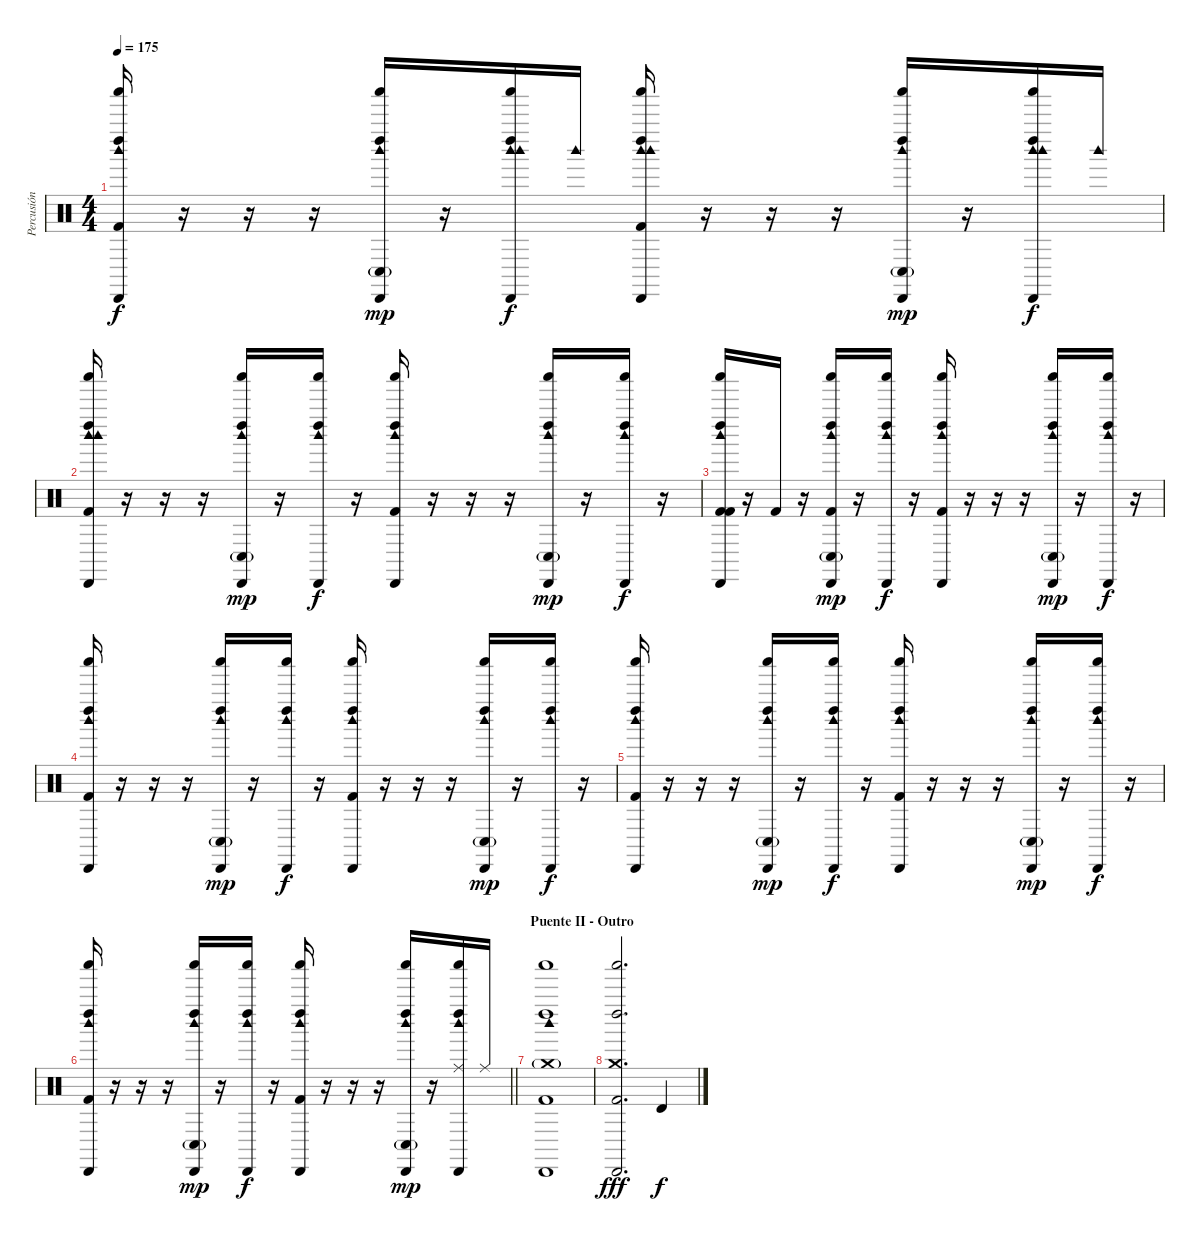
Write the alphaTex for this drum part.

\track ("Percusión" "Percusión") {instrument percussion}
\staff {score}
\articulation defaults
\ts (4 4)
\tempo 175
\clef neutral
\ks c
("Cabasa (hit)" "Shaker (hit)" "Kick (hit) 2" "Left Maraca (hit)" "Woodblock high (hit)").16{dy f} r.16 r.16 r.16 ("Cabasa (hit)" "Shaker (hit)" "Conga low (hit)"{g} "Left Maraca (hit)" "Woodblock high (hit)").16{dy mp} r.16 ("Woodblock high (hit)" "Cabasa (hit)" "Shaker (hit)" "Left Maraca (hit)" "Woodblock high (hit)").16{dy f} "Woodblock high (hit)".16 ("Woodblock high (hit)" "Cabasa (hit)" "Shaker (hit)" "Kick (hit) 2" "Left Maraca (hit)" "Woodblock high (hit)").16 r.16 r.16 r.16 ("Cabasa (hit)" "Shaker (hit)" "Conga low (hit)"{g} "Left Maraca (hit)" "Woodblock high (hit)").16{dy mp} r.16 ("Woodblock high (hit)" "Cabasa (hit)" "Shaker (hit)" "Left Maraca (hit)" "Woodblock high (hit)").16{dy f} "Woodblock high (hit)".16 |
("Woodblock high (hit)" "Cabasa (hit)" "Shaker (hit)" "Kick (hit) 2" "Left Maraca (hit)" "Woodblock high (hit)").16 r.16 r.16 r.16 ("Cabasa (hit)" "Shaker (hit)" "Conga low (hit)"{g} "Left Maraca (hit)" "Woodblock high (hit)").16{dy mp} r.16 ("Cabasa (hit)" "Shaker (hit)" "Left Maraca (hit)" "Woodblock high (hit)").16{dy f} r.16 ("Cabasa (hit)" "Shaker (hit)" "Kick (hit) 2" "Left Maraca (hit)" "Woodblock high (hit)").16 r.16 r.16 r.16 ("Cabasa (hit)" "Shaker (hit)" "Conga low (hit)"{g} "Left Maraca (hit)" "Woodblock high (hit)").16{dy mp} r.16 ("Cabasa (hit)" "Shaker (hit)" "Left Maraca (hit)" "Woodblock high (hit)").16{dy f} r.16 |
("Kick (hit) 2" "Cabasa (hit)" "Shaker (hit)" "Kick (hit) 2" "Left Maraca (hit)" "Woodblock high (hit)").16 r.16 "Kick (hit) 2".16 r.16 ("Kick (hit) 2" "Cabasa (hit)" "Shaker (hit)" "Conga low (hit)"{g} "Left Maraca (hit)" "Woodblock high (hit)").16{dy mp} r.16 ("Cabasa (hit)" "Shaker (hit)" "Left Maraca (hit)" "Woodblock high (hit)").16{dy f} r.16 ("Cabasa (hit)" "Shaker (hit)" "Kick (hit) 2" "Left Maraca (hit)" "Woodblock high (hit)").16 r.16 r.16 r.16 ("Cabasa (hit)" "Shaker (hit)" "Conga low (hit)"{g} "Left Maraca (hit)" "Woodblock high (hit)").16{dy mp} r.16 ("Cabasa (hit)" "Shaker (hit)" "Left Maraca (hit)" "Woodblock high (hit)").16{dy f} r.16 |
("Cabasa (hit)" "Shaker (hit)" "Kick (hit) 2" "Left Maraca (hit)" "Woodblock high (hit)").16 r.16 r.16 r.16 ("Cabasa (hit)" "Shaker (hit)" "Conga low (hit)"{g} "Left Maraca (hit)" "Woodblock high (hit)").16{dy mp} r.16 ("Cabasa (hit)" "Shaker (hit)" "Left Maraca (hit)" "Woodblock high (hit)").16{dy f} r.16 ("Cabasa (hit)" "Shaker (hit)" "Kick (hit) 2" "Left Maraca (hit)" "Woodblock high (hit)").16 r.16 r.16 r.16 ("Cabasa (hit)" "Shaker (hit)" "Conga low (hit)"{g} "Left Maraca (hit)" "Woodblock high (hit)").16{dy mp} r.16 ("Cabasa (hit)" "Shaker (hit)" "Left Maraca (hit)" "Woodblock high (hit)").16{dy f} r.16 |
("Cabasa (hit)" "Shaker (hit)" "Kick (hit) 2" "Left Maraca (hit)" "Woodblock high (hit)").16 r.16 r.16 r.16 ("Cabasa (hit)" "Shaker (hit)" "Conga low (hit)"{g} "Left Maraca (hit)" "Woodblock high (hit)").16{dy mp} r.16 ("Cabasa (hit)" "Shaker (hit)" "Left Maraca (hit)" "Woodblock high (hit)").16{dy f} r.16 ("Cabasa (hit)" "Shaker (hit)" "Kick (hit) 2" "Left Maraca (hit)" "Woodblock high (hit)").16 r.16 r.16 r.16 ("Cabasa (hit)" "Shaker (hit)" "Conga low (hit)"{g} "Left Maraca (hit)" "Woodblock high (hit)").16{dy mp} r.16 ("Cabasa (hit)" "Shaker (hit)" "Left Maraca (hit)" "Woodblock high (hit)").16{dy f} r.16 |
\barLineRight lightlight
("Cabasa (hit)" "Shaker (hit)" "Kick (hit) 2" "Left Maraca (hit)" "Woodblock high (hit)").16 r.16 r.16 r.16 ("Cabasa (hit)" "Shaker (hit)" "Conga low (hit)"{g} "Left Maraca (hit)" "Woodblock high (hit)").16{dy mp} r.16 ("Cabasa (hit)" "Shaker (hit)" "Left Maraca (hit)" "Woodblock high (hit)").16{dy f} r.16 ("Cabasa (hit)" "Shaker (hit)" "Kick (hit) 2" "Left Maraca (hit)" "Woodblock high (hit)").16 r.16 r.16 r.16 ("Cabasa (hit)" "Shaker (hit)" "Conga low (hit)"{g} "Left Maraca (hit)" "Woodblock high (hit)").16{dy mp} r.16 ("Ride (middle)" "Cabasa (hit)" "Shaker (hit)" "Left Maraca (hit)" "Woodblock high (hit)").16 "Ride (middle)".16 |
\section ("" "Puente II - Outro")
("Crash medium (hit)"{g} "Cabasa (hit)" "Shaker (hit)" "Kick (hit) 2" "Left Maraca (hit)" "Woodblock high (hit)").1 |
("Cabasa (hit)" "Left Maraca (hit)" "Crash medium (hit)" "Shaker (hit)" "Kick (hit) 2").2{d dy fff} "Timbale high (hit)".4{dy f}
